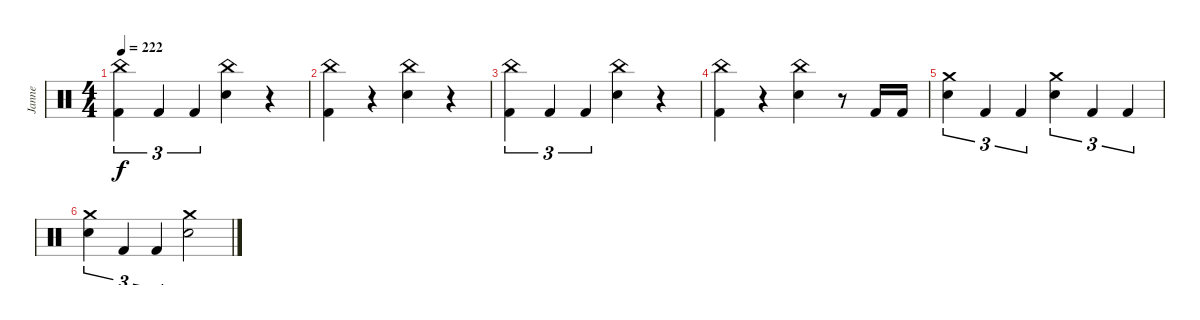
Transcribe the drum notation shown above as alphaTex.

\track ("Janne" "Janne") {instrument percussion}
\staff {score}
\articulation defaults
\ts (4 4)
\tempo 222
\clef neutral
\ks c
("China (hit)" "Kick (hit) 2").4{tu (3 2) dy f} "Kick (hit) 2".4{tu (3 2)} "Kick (hit) 2".4{tu (3 2)} ("China (hit)" "Electric Snare (hit)").4 r.4 |
("China (hit)" "Kick (hit) 2").4 r.4 ("China (hit)" "Electric Snare (hit)").4 r.4 |
("China (hit)" "Kick (hit) 2").4{tu (3 2)} "Kick (hit) 2".4{tu (3 2)} "Kick (hit) 2".4{tu (3 2)} ("China (hit)" "Electric Snare (hit)").4 r.4 |
("China (hit)" "Kick (hit) 2").4 r.4 ("China (hit)" "Electric Snare (hit)").4 r.8 "Kick (hit) 2".16 "Kick (hit) 2".16 |
("Crash medium (hit)" "Electric Snare (hit)").4{tu (3 2)} "Kick (hit) 2".4{tu (3 2)} "Kick (hit) 2".4{tu (3 2)} ("Crash medium (hit)" "Electric Snare (hit)").4{tu (3 2)} "Kick (hit) 2".4{tu (3 2)} "Kick (hit) 2".4{tu (3 2)} |
("Crash medium (hit)" "Electric Snare (hit)").4{tu (3 2)} "Kick (hit) 2".4{tu (3 2)} "Kick (hit) 2".4{tu (3 2)} ("Crash medium (hit)" "Electric Snare (hit)").2
